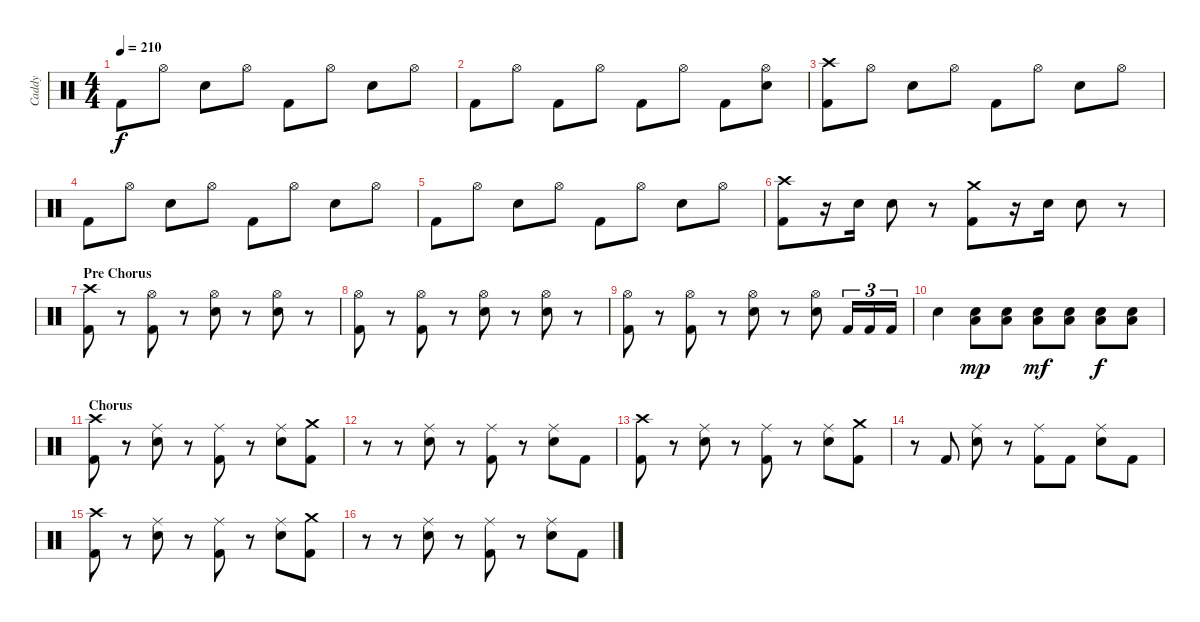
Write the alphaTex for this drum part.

\track ("Caddy" "Caddy") {instrument percussion}
\staff {score}
\articulation defaults
\ts (4 4)
\tempo 210
\clef neutral
\ks c "Kick (hit) 2".8{dy f} "Hi-Hat (open)".8 "Electric Snare (hit)".8 "Hi-Hat (open)".8 "Kick (hit) 2".8 "Hi-Hat (open)".8 "Electric Snare (hit)".8 "Hi-Hat (open)".8
|
"Kick (hit) 2".8 "Hi-Hat (open)".8 "Kick (hit) 2".8 "Hi-Hat (open)".8 "Kick (hit) 2".8 "Hi-Hat (open)".8 "Kick (hit) 2".8 ("Hi-Hat (open)" "Electric Snare (hit)").8 |
("Crash high (hit)" "Kick (hit) 2").8 "Hi-Hat (open)".8 "Electric Snare (hit)".8 "Hi-Hat (open)".8 "Kick (hit) 2".8 "Hi-Hat (open)".8 "Electric Snare (hit)".8 "Hi-Hat (open)".8 |
"Kick (hit) 2".8 "Hi-Hat (open)".8 "Electric Snare (hit)".8 "Hi-Hat (open)".8 "Kick (hit) 2".8 "Hi-Hat (open)".8 "Electric Snare (hit)".8 "Hi-Hat (open)".8 |
"Kick (hit) 2".8 "Hi-Hat (open)".8 "Electric Snare (hit)".8 "Hi-Hat (open)".8 "Kick (hit) 2".8 "Hi-Hat (open)".8 "Electric Snare (hit)".8 "Hi-Hat (open)".8 |
("Crash high (hit)" "Kick (hit) 2").8 r.16 "Electric Snare (hit)".16 "Electric Snare (hit)".8 r.8 ("Crash medium (hit)" "Kick (hit) 2").8 r.16 "Electric Snare (hit)".16 "Electric Snare (hit)".8 r.8 |
\section ("" "Pre Chorus")
("Crash high (hit)" "Kick (hit) 2").8 r.8 ("Hi-Hat (open)" "Kick (hit) 2").8 r.8 ("Hi-Hat (open)" "Electric Snare (hit)").8 r.8 ("Hi-Hat (open)" "Electric Snare (hit)").8 r.8 |
("Hi-Hat (open)" "Kick (hit) 2").8 r.8 ("Hi-Hat (open)" "Kick (hit) 2").8 r.8 ("Hi-Hat (open)" "Electric Snare (hit)").8 r.8 ("Hi-Hat (open)" "Electric Snare (hit)").8 r.8 |
("Hi-Hat (open)" "Kick (hit) 2").8 r.8 ("Hi-Hat (open)" "Kick (hit) 2").8 r.8 ("Hi-Hat (open)" "Electric Snare (hit)").8 r.8 ("Hi-Hat (open)" "Electric Snare (hit)").8 "Kick (hit) 2".16{tu (3 2)} "Kick (hit) 2".16{tu (3 2)} "Kick (hit) 2".16{tu (3 2)} |
"Electric Snare (hit)".4 ("Electric Snare (hit)" "Low Floor Tom (hit)").8{dy mp} ("Electric Snare (hit)" "Low Floor Tom (hit)").8 ("Electric Snare (hit)" "Low Floor Tom (hit)").8{dy mf} ("Electric Snare (hit)" "Low Floor Tom (hit)").8 ("Electric Snare (hit)" "Low Floor Tom (hit)").8{dy f} ("Electric Snare (hit)" "Low Floor Tom (hit)").8 |
\section ("" "Chorus")
("Crash high (hit)" "Kick (hit) 2").8 r.8 ("Ride (middle)" "Electric Snare (hit)").8 r.8 ("Ride (middle)" "Kick (hit) 2").8 r.8 ("Ride (middle)" "Electric Snare (hit)").8 ("Crash medium (hit)" "Kick (hit) 2").8 |
r.8 r.8 ("Ride (middle)" "Electric Snare (hit)").8 r.8 ("Ride (middle)" "Kick (hit) 2").8 r.8 ("Ride (middle)" "Electric Snare (hit)").8 "Kick (hit) 2".8 |
("Crash high (hit)" "Kick (hit) 2").8 r.8 ("Ride (middle)" "Electric Snare (hit)").8 r.8 ("Ride (middle)" "Kick (hit) 2").8 r.8 ("Ride (middle)" "Electric Snare (hit)").8 ("Crash medium (hit)" "Kick (hit) 2").8 |
r.8 "Kick (hit) 2".8 ("Ride (middle)" "Electric Snare (hit)").8 r.8 ("Ride (middle)" "Kick (hit) 2").8 "Kick (hit) 2".8 ("Ride (middle)" "Electric Snare (hit)").8 "Kick (hit) 2".8 |
("Crash high (hit)" "Kick (hit) 2").8 r.8 ("Ride (middle)" "Electric Snare (hit)").8 r.8 ("Ride (middle)" "Kick (hit) 2").8 r.8 ("Ride (middle)" "Electric Snare (hit)").8 ("Crash medium (hit)" "Kick (hit) 2").8 |
r.8 r.8 ("Ride (middle)" "Electric Snare (hit)").8 r.8 ("Ride (middle)" "Kick (hit) 2").8 r.8 ("Ride (middle)" "Electric Snare (hit)").8 "Kick (hit) 2".8
